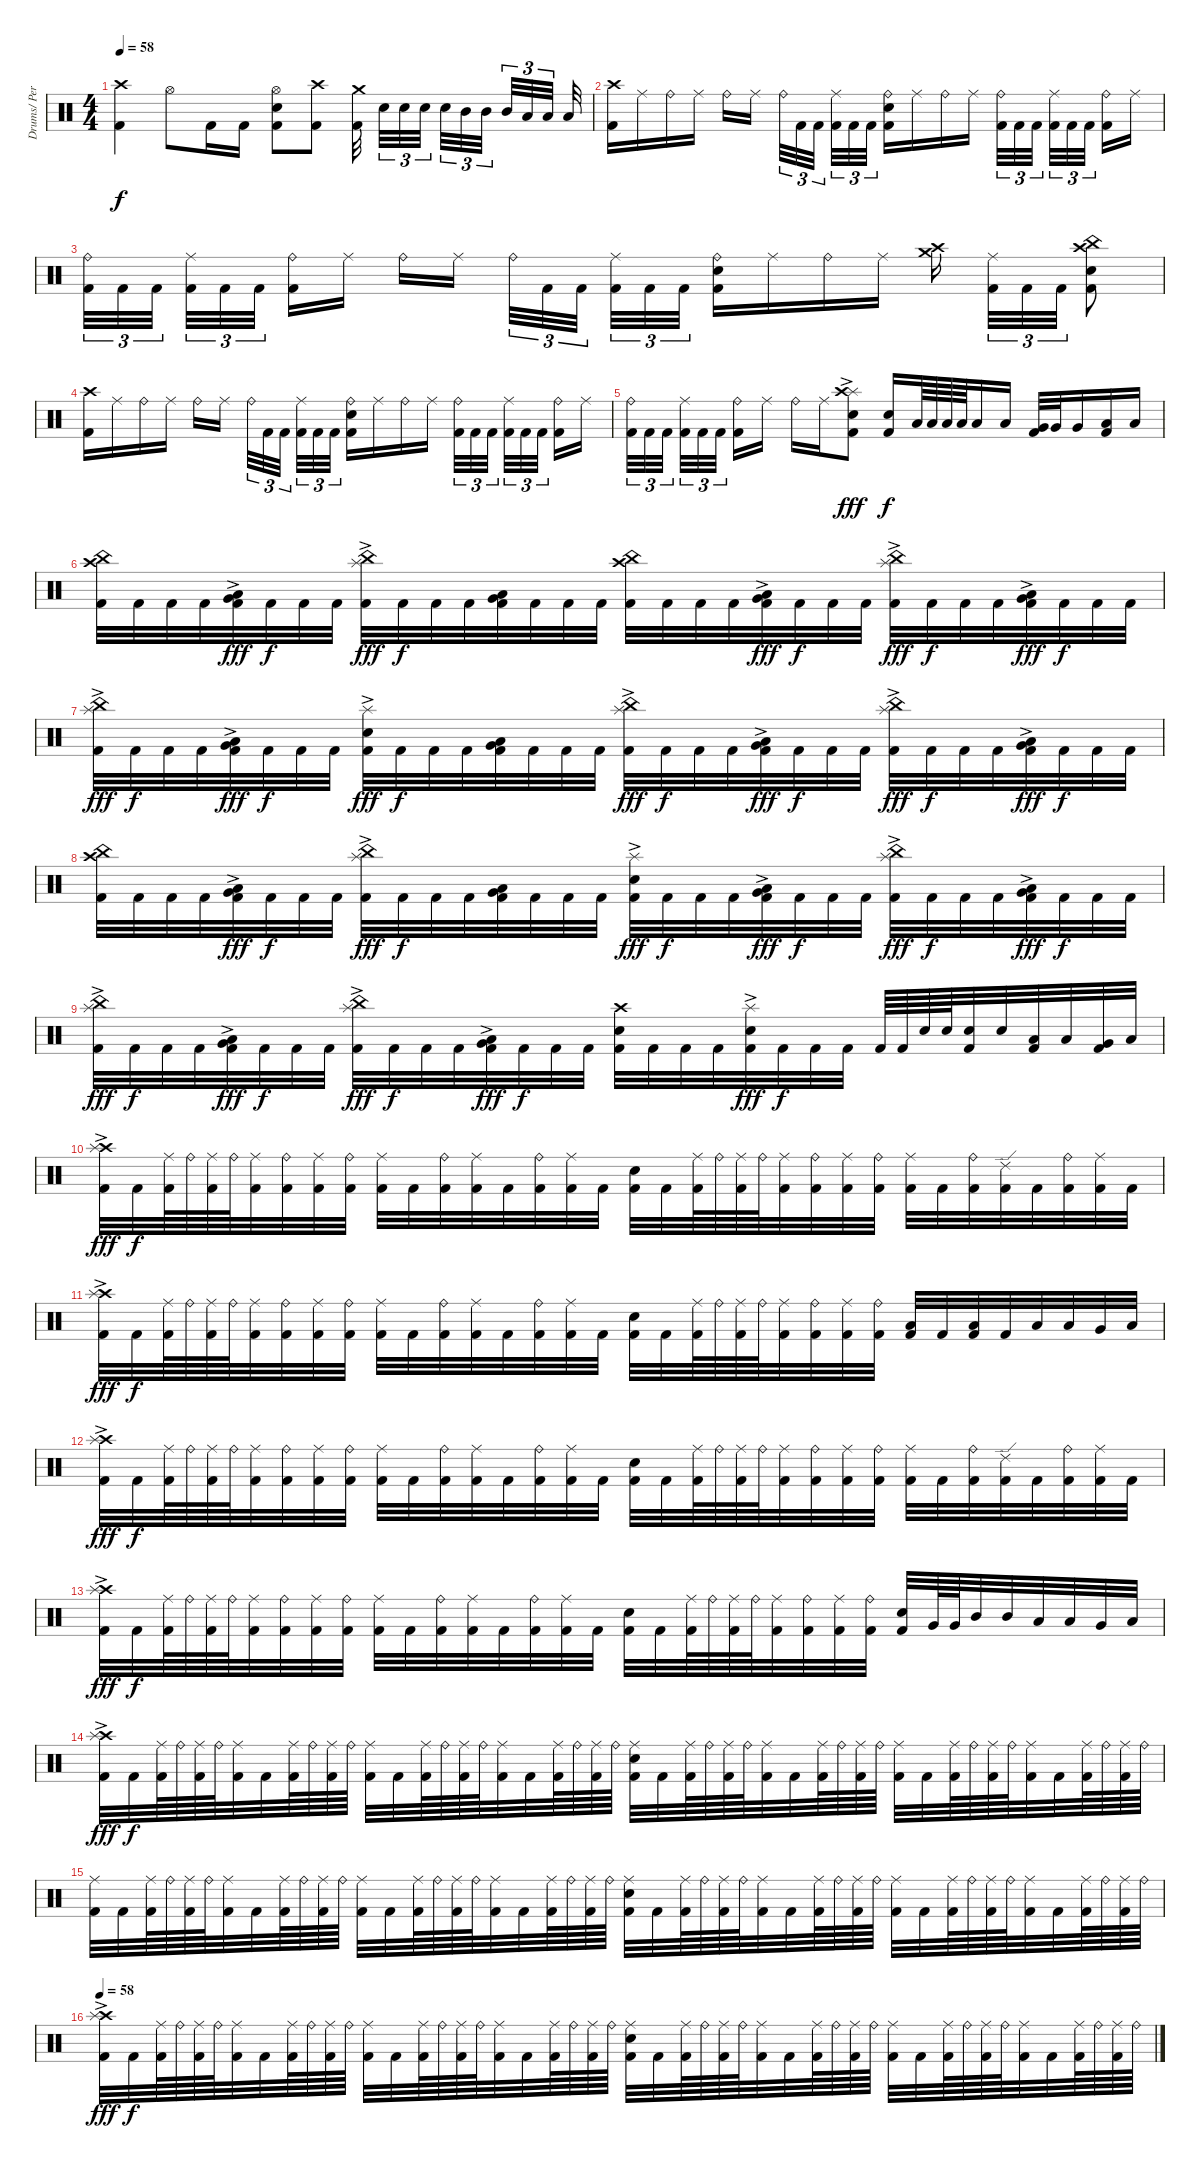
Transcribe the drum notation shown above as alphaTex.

\track ("Drums/ Percussion - Tony Laureano" "Drums/ Per") {instrument percussion}
\staff {score}
\articulation defaults
\ts (4 4)
\tempo 58
\clef neutral
\ks c
("Crash high (hit)" "Kick (hit) 2").4{dy f} "Hi-Hat (open)".8 "Kick (hit) 2".16 "Kick (hit) 2".16 ("Hi-Hat (open)" "Electric Snare (hit)" "Kick (hit) 2").8 ("Crash high (hit)" "Kick (hit) 2").8 ("Crash medium (hit)" "Kick (hit) 2").32 "Electric Snare (hit)".32{tu (3 2)} "Electric Snare (hit)".32{tu (3 2)} "Electric Snare (hit)".32{tu (3 2)} "Electric Snare (hit)".32{tu (3 2)} "Mid Tom (hit)".32{tu (3 2)} "Mid Tom (hit)".32{tu (3 2)} "Mid Tom (hit)".32{tu (3 2)} "Low Tom (hit)".32{tu (3 2)} "Low Tom (hit)".32{tu (3 2)} "Low Tom (hit)".32 |
("Crash high (hit)" "Kick (hit) 2").16 "Ride (middle)".16 "Ride (bell)".16 "Ride (middle)".16 "Ride (bell)".16 "Ride (middle)".16 "Ride (bell)".32{tu (3 2)} "Kick (hit) 2".32{tu (3 2)} "Kick (hit) 2".32{tu (3 2)} ("Ride (middle)" "Kick (hit) 2").32{tu (3 2)} "Kick (hit) 2".32{tu (3 2)} "Kick (hit) 2".32{tu (3 2)} ("Ride (bell)" "Electric Snare (hit)" "Kick (hit) 2").16 "Ride (middle)".16 "Ride (bell)".16 "Ride (middle)".16 ("Ride (bell)" "Kick (hit) 2").32{tu (3 2)} "Kick (hit) 2".32{tu (3 2)} "Kick (hit) 2".32{tu (3 2)} ("Ride (middle)" "Kick (hit) 2").32{tu (3 2)} "Kick (hit) 2".32{tu (3 2)} "Kick (hit) 2".32{tu (3 2)} ("Ride (bell)" "Kick (hit) 2").16 "Ride (middle)".16 |
("Ride (bell)" "Kick (hit) 2").32{tu (3 2)} "Kick (hit) 2".32{tu (3 2)} "Kick (hit) 2".32{tu (3 2)} ("Ride (middle)" "Kick (hit) 2").32{tu (3 2)} "Kick (hit) 2".32{tu (3 2)} "Kick (hit) 2".32{tu (3 2)} ("Ride (bell)" "Kick (hit) 2").16 "Ride (middle)".16 "Ride (bell)".16 "Ride (middle)".16 "Ride (bell)".32{tu (3 2)} "Kick (hit) 2".32{tu (3 2)} "Kick (hit) 2".32{tu (3 2)} ("Ride (middle)" "Kick (hit) 2").32{tu (3 2)} "Kick (hit) 2".32{tu (3 2)} "Kick (hit) 2".32{tu (3 2)} ("Ride (bell)" "Electric Snare (hit)" "Kick (hit) 2").16 "Ride (middle)".16 "Ride (bell)".16 "Ride (middle)".16 ("Crash medium (hit)" "Crash high (hit)").16 ("Ride (middle)" "Kick (hit) 2").32{tu (3 2)} "Kick (hit) 2".32{tu (3 2)} "Kick (hit) 2".32{tu (3 2)} ("Crash high (hit)" "China (hit)" "Electric Snare (hit)" "Kick (hit) 2").8 |
("Crash high (hit)" "Kick (hit) 2").16 "Ride (middle)".16 "Ride (bell)".16 "Ride (middle)".16 "Ride (bell)".16 "Ride (middle)".16 "Ride (bell)".32{tu (3 2)} "Kick (hit) 2".32{tu (3 2)} "Kick (hit) 2".32{tu (3 2)} ("Ride (middle)" "Kick (hit) 2").32{tu (3 2)} "Kick (hit) 2".32{tu (3 2)} "Kick (hit) 2".32{tu (3 2)} ("Ride (bell)" "Electric Snare (hit)" "Kick (hit) 2").16 "Ride (middle)".16 "Ride (bell)".16 "Ride (middle)".16 ("Ride (bell)" "Kick (hit) 2").32{tu (3 2)} "Kick (hit) 2".32{tu (3 2)} "Kick (hit) 2".32{tu (3 2)} ("Ride (middle)" "Kick (hit) 2").32{tu (3 2)} "Kick (hit) 2".32{tu (3 2)} "Kick (hit) 2".32{tu (3 2)} ("Ride (bell)" "Kick (hit) 2").16 "Ride (middle)".16 |
("Ride (bell)" "Kick (hit) 2").32{tu (3 2)} "Kick (hit) 2".32{tu (3 2)} "Kick (hit) 2".32{tu (3 2)} ("Ride (middle)" "Kick (hit) 2").32{tu (3 2)} "Kick (hit) 2".32{tu (3 2)} "Kick (hit) 2".32{tu (3 2)} ("Ride (bell)" "Kick (hit) 2").16 "Ride (middle)".16 "Ride (bell)".16 "Ride (middle)".16 ("Splash (hit)"{ac} "Crash high (hit)" "Electric Snare (hit)" "Kick (hit) 2").8{dy fff} ("Electric Snare (hit)" "Kick (hit) 2").16{dy f} "Low Tom (hit)".64 "Low Tom (hit)".64 "Low Tom (hit)".64 "Low Tom (hit)".64 "Low Tom (hit)".16 "Low Tom (hit)".16 ("Very Low Tom (hit)" "Kick (hit) 2").32 "Very Low Tom (hit)".32 "Very Low Tom (hit)".16 ("Low Floor Tom (hit)" "Kick (hit) 2").16 "Low Floor Tom (hit)".16 |
("China (hit)" "Crash high (hit)" "Kick (hit) 2").32 "Kick (hit) 2".32 "Kick (hit) 2".32 "Kick (hit) 2".32 ("Very Low Tom (hit)"{ac} "Low Floor Tom (hit)"{ac} "Kick (hit) 2").32{dy fff} "Kick (hit) 2".32{dy f} "Kick (hit) 2".32 "Kick (hit) 2".32 ("Splash (hit)"{ac} "China (hit)" "Kick (hit) 2").32{dy fff} "Kick (hit) 2".32{dy f} "Kick (hit) 2".32 "Kick (hit) 2".32 ("Very Low Tom (hit)" "Low Floor Tom (hit)" "Kick (hit) 2").32 "Kick (hit) 2".32 "Kick (hit) 2".32 "Kick (hit) 2".32 ("Crash high (hit)" "China (hit)" "Kick (hit) 2").32 "Kick (hit) 2".32 "Kick (hit) 2".32 "Kick (hit) 2".32 ("Very Low Tom (hit)"{ac} "Low Floor Tom (hit)"{ac} "Kick (hit) 2").32{dy fff} "Kick (hit) 2".32{dy f} "Kick (hit) 2".32 "Kick (hit) 2".32 ("Splash (hit)"{ac} "China (hit)" "Kick (hit) 2").32{dy fff} "Kick (hit) 2".32{dy f} "Kick (hit) 2".32 "Kick (hit) 2".32 ("Very Low Tom (hit)"{ac} "Low Floor Tom (hit)"{ac} "Kick (hit) 2").32{dy fff} "Kick (hit) 2".32{dy f} "Kick (hit) 2".32 "Kick (hit) 2".32 |
("China (hit)" "Splash (hit)"{ac} "Kick (hit) 2").32{dy fff} "Kick (hit) 2".32{dy f} "Kick (hit) 2".32 "Kick (hit) 2".32 ("Very Low Tom (hit)"{ac} "Low Floor Tom (hit)"{ac} "Kick (hit) 2").32{dy fff} "Kick (hit) 2".32{dy f} "Kick (hit) 2".32 "Kick (hit) 2".32 ("Splash (hit)"{ac} "Electric Snare (hit)" "Kick (hit) 2").32{dy fff} "Kick (hit) 2".32{dy f} "Kick (hit) 2".32 "Kick (hit) 2".32 ("Very Low Tom (hit)" "Low Floor Tom (hit)" "Kick (hit) 2").32 "Kick (hit) 2".32 "Kick (hit) 2".32 "Kick (hit) 2".32 ("Splash (hit)"{ac} "China (hit)" "Kick (hit) 2").32{dy fff} "Kick (hit) 2".32{dy f} "Kick (hit) 2".32 "Kick (hit) 2".32 ("Very Low Tom (hit)"{ac} "Low Floor Tom (hit)"{ac} "Kick (hit) 2").32{dy fff} "Kick (hit) 2".32{dy f} "Kick (hit) 2".32 "Kick (hit) 2".32 ("Splash (hit)"{ac} "China (hit)" "Kick (hit) 2").32{dy fff} "Kick (hit) 2".32{dy f} "Kick (hit) 2".32 "Kick (hit) 2".32 ("Very Low Tom (hit)"{ac} "Low Floor Tom (hit)"{ac} "Kick (hit) 2").32{dy fff} "Kick (hit) 2".32{dy f} "Kick (hit) 2".32 "Kick (hit) 2".32 |
("China (hit)" "Crash high (hit)" "Kick (hit) 2").32 "Kick (hit) 2".32 "Kick (hit) 2".32 "Kick (hit) 2".32 ("Very Low Tom (hit)"{ac} "Low Floor Tom (hit)"{ac} "Kick (hit) 2").32{dy fff} "Kick (hit) 2".32{dy f} "Kick (hit) 2".32 "Kick (hit) 2".32 ("Splash (hit)"{ac} "China (hit)" "Kick (hit) 2").32{dy fff} "Kick (hit) 2".32{dy f} "Kick (hit) 2".32 "Kick (hit) 2".32 ("Very Low Tom (hit)" "Low Floor Tom (hit)" "Kick (hit) 2").32 "Kick (hit) 2".32 "Kick (hit) 2".32 "Kick (hit) 2".32 ("Splash (hit)"{ac} "Electric Snare (hit)" "Kick (hit) 2").32{dy fff} "Kick (hit) 2".32{dy f} "Kick (hit) 2".32 "Kick (hit) 2".32 ("Very Low Tom (hit)"{ac} "Low Floor Tom (hit)"{ac} "Kick (hit) 2").32{dy fff} "Kick (hit) 2".32{dy f} "Kick (hit) 2".32 "Kick (hit) 2".32 ("Splash (hit)"{ac} "China (hit)" "Kick (hit) 2").32{dy fff} "Kick (hit) 2".32{dy f} "Kick (hit) 2".32 "Kick (hit) 2".32 ("Very Low Tom (hit)"{ac} "Low Floor Tom (hit)"{ac} "Kick (hit) 2").32{dy fff} "Kick (hit) 2".32{dy f} "Kick (hit) 2".32 "Kick (hit) 2".32 |
("China (hit)" "Splash (hit)"{ac} "Kick (hit) 2").32{dy fff} "Kick (hit) 2".32{dy f} "Kick (hit) 2".32 "Kick (hit) 2".32 ("Very Low Tom (hit)"{ac} "Low Floor Tom (hit)"{ac} "Kick (hit) 2").32{dy fff} "Kick (hit) 2".32{dy f} "Kick (hit) 2".32 "Kick (hit) 2".32 ("China (hit)" "Splash (hit)"{ac} "Kick (hit) 2").32{dy fff} "Kick (hit) 2".32{dy f} "Kick (hit) 2".32 "Kick (hit) 2".32 ("Very Low Tom (hit)"{ac} "Low Floor Tom (hit)"{ac} "Kick (hit) 2").32{dy fff} "Kick (hit) 2".32{dy f} "Kick (hit) 2".32 "Kick (hit) 2".32 ("Crash high (hit)" "Electric Snare (hit)" "Kick (hit) 2").32 "Kick (hit) 2".32 "Kick (hit) 2".32 "Kick (hit) 2".32 ("Splash (hit)"{ac} "Electric Snare (hit)" "Kick (hit) 2").32{dy fff} "Kick (hit) 2".32{dy f} "Kick (hit) 2".32 "Kick (hit) 2".32 "Kick (hit) 2".64 "Kick (hit) 2".64 "Electric Snare (hit)".64 "Electric Snare (hit)".64 ("Electric Snare (hit)" "Kick (hit) 2").32 "Electric Snare (hit)".32 ("Low Tom (hit)" "Kick (hit) 2").32 "Low Tom (hit)".32 ("Very Low Tom (hit)" "Kick (hit) 2").32 "Low Floor Tom (hit)".32 |
("Crash high (hit)" "Splash (hit)"{ac} "Kick (hit) 2").32{dy fff} "Kick (hit) 2".32{dy f} ("Ride (middle)" "Kick (hit) 2").64 "Ride (bell)".64 ("Ride (middle)" "Kick (hit) 2").64 "Ride (bell)".64 ("Ride (middle)" "Kick (hit) 2").32 ("Ride (bell)" "Kick (hit) 2").32 ("Ride (middle)" "Kick (hit) 2").32 ("Ride (bell)" "Kick (hit) 2").32 ("Ride (middle)" "Kick (hit) 2").32 "Kick (hit) 2".32 ("Ride (bell)" "Kick (hit) 2").32 ("Ride (middle)" "Kick (hit) 2").32 "Kick (hit) 2".32 ("Ride (bell)" "Kick (hit) 2").32 ("Ride (middle)" "Kick (hit) 2").32 "Kick (hit) 2".32 ("Electric Snare (hit)" "Kick (hit) 2").32 "Kick (hit) 2".32 ("Ride (middle)" "Kick (hit) 2").64 "Ride (bell)".64 ("Ride (middle)" "Kick (hit) 2").64 "Ride (bell)".64 ("Ride (middle)" "Kick (hit) 2").32 ("Ride (bell)" "Kick (hit) 2").32 ("Ride (middle)" "Kick (hit) 2").32 ("Ride (bell)" "Kick (hit) 2").32 ("Ride (middle)" "Kick (hit) 2").32 "Kick (hit) 2".32 ("Ride (bell)" "Kick (hit) 2").32 ("Ride (edge) 2" "Kick (hit) 2").32 "Kick (hit) 2".32 ("Ride (bell)" "Kick (hit) 2").32 ("Ride (middle)" "Kick (hit) 2").32 "Kick (hit) 2".32 |
("Crash high (hit)" "Splash (hit)"{ac} "Kick (hit) 2").32{dy fff} "Kick (hit) 2".32{dy f} ("Ride (middle)" "Kick (hit) 2").64 "Ride (bell)".64 ("Ride (middle)" "Kick (hit) 2").64 "Ride (bell)".64 ("Ride (middle)" "Kick (hit) 2").32 ("Ride (bell)" "Kick (hit) 2").32 ("Ride (middle)" "Kick (hit) 2").32 ("Ride (bell)" "Kick (hit) 2").32 ("Ride (middle)" "Kick (hit) 2").32 "Kick (hit) 2".32 ("Ride (bell)" "Kick (hit) 2").32 ("Ride (middle)" "Kick (hit) 2").32 "Kick (hit) 2".32 ("Ride (bell)" "Kick (hit) 2").32 ("Ride (middle)" "Kick (hit) 2").32 "Kick (hit) 2".32 ("Electric Snare (hit)" "Kick (hit) 2").32 "Kick (hit) 2".32 ("Ride (middle)" "Kick (hit) 2").64 "Ride (bell)".64 ("Ride (middle)" "Kick (hit) 2").64 "Ride (bell)".64 ("Ride (middle)" "Kick (hit) 2").32 ("Ride (bell)" "Kick (hit) 2").32 ("Ride (middle)" "Kick (hit) 2").32 ("Ride (bell)" "Kick (hit) 2").32 ("Low Floor Tom (hit)" "Kick (hit) 2").32 "Kick (hit) 2".32 ("Low Floor Tom (hit)" "Kick (hit) 2").32 "Kick (hit) 2".32 "Low Tom (hit)".32 "Low Tom (hit)".32 "Very Low Tom (hit)".32 "Low Floor Tom (hit)".32 |
("Crash high (hit)" "Splash (hit)"{ac} "Kick (hit) 2").32{dy fff} "Kick (hit) 2".32{dy f} ("Ride (middle)" "Kick (hit) 2").64 "Ride (bell)".64 ("Ride (middle)" "Kick (hit) 2").64 "Ride (bell)".64 ("Ride (middle)" "Kick (hit) 2").32 ("Ride (bell)" "Kick (hit) 2").32 ("Ride (middle)" "Kick (hit) 2").32 ("Ride (bell)" "Kick (hit) 2").32 ("Ride (middle)" "Kick (hit) 2").32 "Kick (hit) 2".32 ("Ride (bell)" "Kick (hit) 2").32 ("Ride (middle)" "Kick (hit) 2").32 "Kick (hit) 2".32 ("Ride (bell)" "Kick (hit) 2").32 ("Ride (middle)" "Kick (hit) 2").32 "Kick (hit) 2".32 ("Electric Snare (hit)" "Kick (hit) 2").32 "Kick (hit) 2".32 ("Ride (middle)" "Kick (hit) 2").64 "Ride (bell)".64 ("Ride (middle)" "Kick (hit) 2").64 "Ride (bell)".64 ("Ride (middle)" "Kick (hit) 2").32 ("Ride (bell)" "Kick (hit) 2").32 ("Ride (middle)" "Kick (hit) 2").32 ("Ride (bell)" "Kick (hit) 2").32 ("Ride (middle)" "Kick (hit) 2").32 "Kick (hit) 2".32 ("Ride (bell)" "Kick (hit) 2").32 ("Ride (edge) 2" "Kick (hit) 2").32 "Kick (hit) 2".32 ("Ride (bell)" "Kick (hit) 2").32 ("Ride (middle)" "Kick (hit) 2").32 "Kick (hit) 2".32 |
("Crash high (hit)" "Splash (hit)"{ac} "Kick (hit) 2").32{dy fff} "Kick (hit) 2".32{dy f} ("Ride (middle)" "Kick (hit) 2").64 "Ride (bell)".64 ("Ride (middle)" "Kick (hit) 2").64 "Ride (bell)".64 ("Ride (middle)" "Kick (hit) 2").32 ("Ride (bell)" "Kick (hit) 2").32 ("Ride (middle)" "Kick (hit) 2").32 ("Ride (bell)" "Kick (hit) 2").32 ("Ride (middle)" "Kick (hit) 2").32 "Kick (hit) 2".32 ("Ride (bell)" "Kick (hit) 2").32 ("Ride (middle)" "Kick (hit) 2").32 "Kick (hit) 2".32 ("Ride (bell)" "Kick (hit) 2").32 ("Ride (middle)" "Kick (hit) 2").32 "Kick (hit) 2".32 ("Electric Snare (hit)" "Kick (hit) 2").32 "Kick (hit) 2".32 ("Ride (middle)" "Kick (hit) 2").64 "Ride (bell)".64 ("Ride (middle)" "Kick (hit) 2").64 "Ride (bell)".64 ("Ride (middle)" "Kick (hit) 2").32 ("Ride (bell)" "Kick (hit) 2").32 ("Ride (middle)" "Kick (hit) 2").32 ("Ride (bell)" "Kick (hit) 2").32 ("Electric Snare (hit)" "Kick (hit) 2").32 "Very Low Tom (hit)".64 "Very Low Tom (hit)".64 "Mid Tom (hit)".32 "Mid Tom (hit)".32 "Low Tom (hit)".32 "Low Tom (hit)".32 "Very Low Tom (hit)".32 "Low Floor Tom (hit)".32 |
("Crash high (hit)" "Splash (hit)"{ac} "Kick (hit) 2").32{dy fff volume 6} "Kick (hit) 2".32{dy f} ("Ride (middle)" "Kick (hit) 2").64 "Ride (bell)".64 ("Ride (middle)" "Kick (hit) 2").64 "Ride (bell)".64 ("Ride (middle)" "Kick (hit) 2").32 "Kick (hit) 2".32 ("Ride (middle)" "Kick (hit) 2").64 "Ride (bell)".64 ("Ride (middle)" "Kick (hit) 2").64 "Ride (bell)".64 ("Ride (middle)" "Kick (hit) 2").32 "Kick (hit) 2".32 ("Ride (middle)" "Kick (hit) 2").64 "Ride (bell)".64 ("Ride (middle)" "Kick (hit) 2").64 "Ride (bell)".64 ("Ride (middle)" "Kick (hit) 2").32 "Kick (hit) 2".32 ("Ride (middle)" "Kick (hit) 2").64 "Ride (bell)".64 ("Ride (middle)" "Kick (hit) 2").64 "Ride (bell)".64 ("Ride (middle)" "Electric Snare (hit)" "Kick (hit) 2").32 "Kick (hit) 2".32 ("Ride (middle)" "Kick (hit) 2").64 "Ride (bell)".64 ("Ride (middle)" "Kick (hit) 2").64 "Ride (bell)".64 ("Ride (middle)" "Kick (hit) 2").32 "Kick (hit) 2".32 ("Ride (middle)" "Kick (hit) 2").64 "Ride (bell)".64 ("Ride (middle)" "Kick (hit) 2").64 "Ride (bell)".64 ("Ride (middle)" "Kick (hit) 2").32 "Kick (hit) 2".32 ("Ride (middle)" "Kick (hit) 2").64 "Ride (bell)".64 ("Ride (middle)" "Kick (hit) 2").64 "Ride (bell)".64 ("Ride (middle)" "Kick (hit) 2").32 "Kick (hit) 2".32 ("Ride (middle)" "Kick (hit) 2").64 "Ride (bell)".64 ("Ride (middle)" "Kick (hit) 2").64 "Ride (bell)".64 |
("Ride (middle)" "Kick (hit) 2").32 "Kick (hit) 2".32 ("Ride (middle)" "Kick (hit) 2").64 "Ride (bell)".64 ("Ride (middle)" "Kick (hit) 2").64 "Ride (bell)".64 ("Ride (middle)" "Kick (hit) 2").32 "Kick (hit) 2".32 ("Ride (middle)" "Kick (hit) 2").64 "Ride (bell)".64 ("Ride (middle)" "Kick (hit) 2").64 "Ride (bell)".64 ("Ride (middle)" "Kick (hit) 2").32 "Kick (hit) 2".32 ("Ride (middle)" "Kick (hit) 2").64 "Ride (bell)".64 ("Ride (middle)" "Kick (hit) 2").64 "Ride (bell)".64 ("Ride (middle)" "Kick (hit) 2").32 "Kick (hit) 2".32 ("Ride (middle)" "Kick (hit) 2").64 "Ride (bell)".64 ("Ride (middle)" "Kick (hit) 2").64 "Ride (bell)".64 ("Ride (middle)" "Electric Snare (hit)" "Kick (hit) 2").32 "Kick (hit) 2".32 ("Ride (middle)" "Kick (hit) 2").64 "Ride (bell)".64 ("Ride (middle)" "Kick (hit) 2").64 "Ride (bell)".64 ("Ride (middle)" "Kick (hit) 2").32 "Kick (hit) 2".32 ("Ride (middle)" "Kick (hit) 2").64 "Ride (bell)".64 ("Ride (middle)" "Kick (hit) 2").64 "Ride (bell)".64 ("Ride (middle)" "Kick (hit) 2").32 "Kick (hit) 2".32 ("Ride (middle)" "Kick (hit) 2").64 "Ride (bell)".64 ("Ride (middle)" "Kick (hit) 2").64 "Ride (bell)".64 ("Ride (middle)" "Kick (hit) 2").32 "Kick (hit) 2".32 ("Ride (middle)" "Kick (hit) 2").64 "Ride (bell)".64 ("Ride (middle)" "Kick (hit) 2").64 "Ride (bell)".64 |
\tempo 58
("Crash high (hit)" "Splash (hit)"{ac} "Kick (hit) 2").32{dy fff} "Kick (hit) 2".32{dy f} ("Ride (middle)" "Kick (hit) 2").64 "Ride (bell)".64 ("Ride (middle)" "Kick (hit) 2").64 "Ride (bell)".64 ("Ride (middle)" "Kick (hit) 2").32 "Kick (hit) 2".32 ("Ride (middle)" "Kick (hit) 2").64 "Ride (bell)".64 ("Ride (middle)" "Kick (hit) 2").64 "Ride (bell)".64 ("Ride (middle)" "Kick (hit) 2").32 "Kick (hit) 2".32 ("Ride (middle)" "Kick (hit) 2").64 "Ride (bell)".64 ("Ride (middle)" "Kick (hit) 2").64 "Ride (bell)".64 ("Ride (middle)" "Kick (hit) 2").32 "Kick (hit) 2".32 ("Ride (middle)" "Kick (hit) 2").64 "Ride (bell)".64 ("Ride (middle)" "Kick (hit) 2").64 "Ride (bell)".64 ("Ride (middle)" "Electric Snare (hit)" "Kick (hit) 2").32 "Kick (hit) 2".32 ("Ride (middle)" "Kick (hit) 2").64 "Ride (bell)".64 ("Ride (middle)" "Kick (hit) 2").64 "Ride (bell)".64 ("Ride (middle)" "Kick (hit) 2").32 "Kick (hit) 2".32 ("Ride (middle)" "Kick (hit) 2").64 "Ride (bell)".64 ("Ride (middle)" "Kick (hit) 2").64 "Ride (bell)".64 ("Ride (middle)" "Kick (hit) 2").32 "Kick (hit) 2".32 ("Ride (middle)" "Kick (hit) 2").64 "Ride (bell)".64 ("Ride (middle)" "Kick (hit) 2").64 "Ride (bell)".64 ("Ride (middle)" "Kick (hit) 2").32 "Kick (hit) 2".32 ("Ride (middle)" "Kick (hit) 2").64 "Ride (bell)".64 ("Ride (middle)" "Kick (hit) 2").64 "Ride (bell)".64
